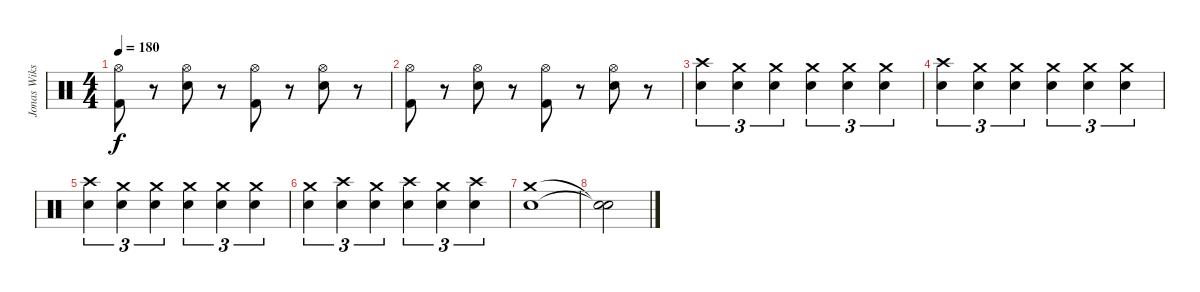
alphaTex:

\track ("Jonas Wikstrand" "Jonas Wiks") {instrument percussion}
\staff {score}
\articulation defaults
\ts (4 4)
\tempo 180
\clef neutral
\ks c
("Hi-Hat (open)" "Kick (hit) 2").8{dy f} r.8 ("Hi-Hat (open)" "Snare (hit) 2").8 r.8 ("Hi-Hat (open)" "Kick (hit) 2").8 r.8 ("Hi-Hat (open)" "Snare (hit) 2").8 r.8 |
("Hi-Hat (open)" "Kick (hit) 2").8 r.8 ("Hi-Hat (open)" "Snare (hit) 2").8 r.8 ("Hi-Hat (open)" "Kick (hit) 2").8 r.8 ("Hi-Hat (open)" "Snare (hit) 2").8 r.8 |
("Crash high (hit)" "Snare (hit) 2").4{tu (3 2)} ("Crash medium (hit)" "Snare (hit) 2").4{tu (3 2)} ("Crash medium (hit)" "Snare (hit) 2").4{tu (3 2)} ("Crash medium (hit)" "Snare (hit) 2").4{tu (3 2)} ("Crash medium (hit)" "Snare (hit) 2").4{tu (3 2)} ("Crash medium (hit)" "Snare (hit) 2").4{tu (3 2)} |
("Crash high (hit)" "Snare (hit) 2").4{tu (3 2)} ("Crash medium (hit)" "Snare (hit) 2").4{tu (3 2)} ("Crash medium (hit)" "Snare (hit) 2").4{tu (3 2)} ("Crash medium (hit)" "Snare (hit) 2").4{tu (3 2)} ("Crash medium (hit)" "Snare (hit) 2").4{tu (3 2)} ("Crash medium (hit)" "Snare (hit) 2").4{tu (3 2)} |
("Crash high (hit)" "Snare (hit) 2").4{tu (3 2)} ("Crash medium (hit)" "Snare (hit) 2").4{tu (3 2)} ("Crash medium (hit)" "Snare (hit) 2").4{tu (3 2)} ("Crash medium (hit)" "Snare (hit) 2").4{tu (3 2)} ("Crash medium (hit)" "Snare (hit) 2").4{tu (3 2)} ("Crash medium (hit)" "Snare (hit) 2").4{tu (3 2)} |
("Crash medium (hit)" "Snare (hit) 2").4{tu (3 2)} ("Crash high (hit)" "Snare (hit) 2").4{tu (3 2)} ("Crash medium (hit)" "Snare (hit) 2").4{tu (3 2)} ("Crash high (hit)" "Snare (hit) 2").4{tu (3 2)} ("Crash medium (hit)" "Snare (hit) 2").4{tu (3 2)} ("Crash high (hit)" "Snare (hit) 2").4{tu (3 2)} |
("Crash medium (hit)" "Snare (hit) 2").1 |
("Snare (hit)"{t} "Snare (hit)"{t}).2
